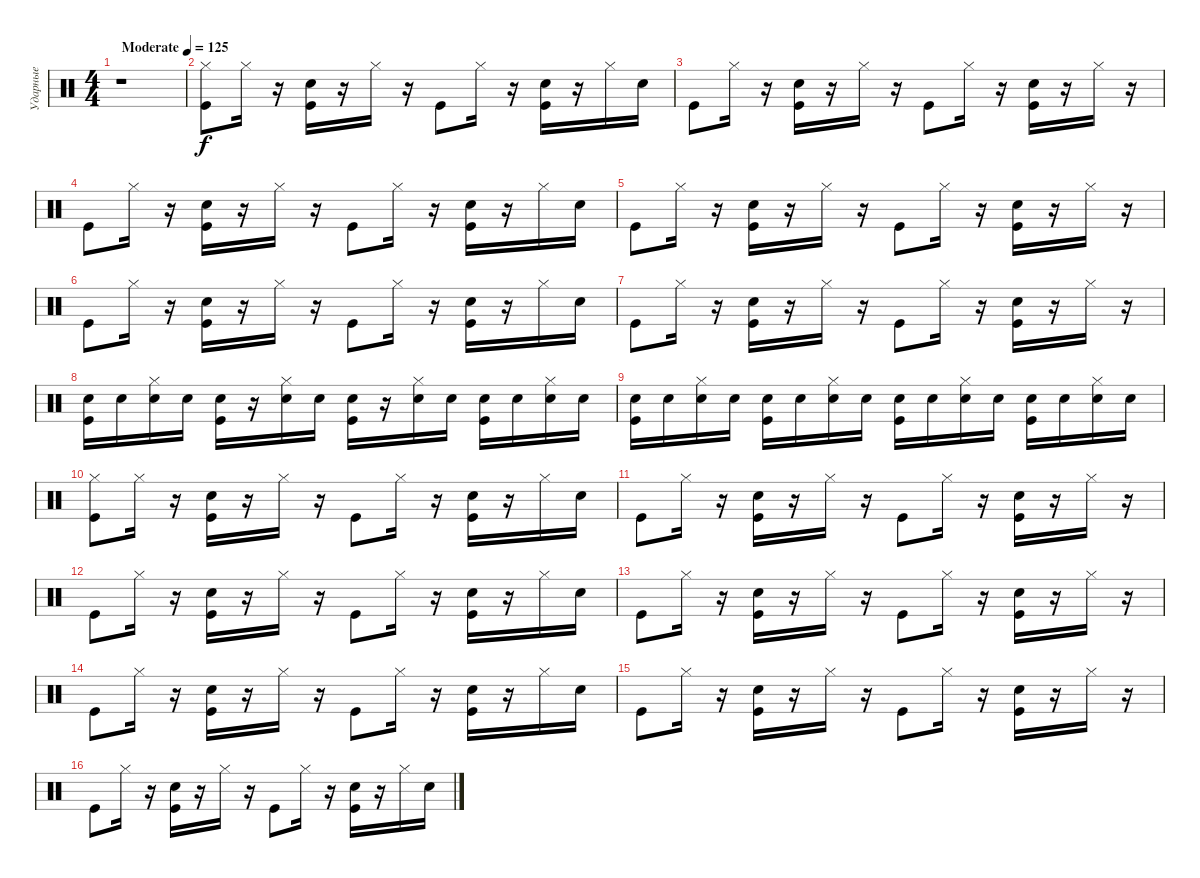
\track ("Ударные" "Ударные") {instrument percussion}
\staff {score}
\articulation defaults
\ts (4 4)
\tempo (125 "Moderate")
\clef neutral
\ks c
r.1{dy f} |
("Hi-Hat (closed)" "Kick (hit)").8 "Hi-Hat (closed)".16 r.16 ("Snare (hit) 2" "Kick (hit)").16 r.16 "Hi-Hat (closed)".16 r.16 "Kick (hit)".8 "Hi-Hat (closed)".16 r.16 ("Snare (hit) 2" "Kick (hit)").16 r.16 "Hi-Hat (closed)".16 "Snare (hit) 2".16 |
"Kick (hit)".8 "Hi-Hat (closed)".16 r.16 ("Snare (hit) 2" "Kick (hit)").16 r.16 "Hi-Hat (closed)".16 r.16 "Kick (hit)".8 "Hi-Hat (closed)".16 r.16 ("Snare (hit) 2" "Kick (hit)").16 r.16 "Hi-Hat (closed)".16 r.16 |
"Kick (hit)".8 "Hi-Hat (closed)".16 r.16 ("Snare (hit) 2" "Kick (hit)").16 r.16 "Hi-Hat (closed)".16 r.16 "Kick (hit)".8 "Hi-Hat (closed)".16 r.16 ("Snare (hit) 2" "Kick (hit)").16 r.16 "Hi-Hat (closed)".16 "Snare (hit) 2".16 |
"Kick (hit)".8 "Hi-Hat (closed)".16 r.16 ("Snare (hit) 2" "Kick (hit)").16 r.16 "Hi-Hat (closed)".16 r.16 "Kick (hit)".8 "Hi-Hat (closed)".16 r.16 ("Snare (hit) 2" "Kick (hit)").16 r.16 "Hi-Hat (closed)".16 r.16 |
"Kick (hit)".8 "Hi-Hat (closed)".16 r.16 ("Snare (hit) 2" "Kick (hit)").16 r.16 "Hi-Hat (closed)".16 r.16 "Kick (hit)".8 "Hi-Hat (closed)".16 r.16 ("Snare (hit) 2" "Kick (hit)").16 r.16 "Hi-Hat (closed)".16 "Snare (hit) 2".16 |
"Kick (hit)".8 "Hi-Hat (closed)".16 r.16 ("Snare (hit) 2" "Kick (hit)").16 r.16 "Hi-Hat (closed)".16 r.16 "Kick (hit)".8 "Hi-Hat (closed)".16 r.16 ("Snare (hit) 2" "Kick (hit)").16 r.16 "Hi-Hat (closed)".16 r.16 |
("Snare (hit) 2" "Kick (hit)").16 "Snare (hit) 2".16 ("Hi-Hat (closed)" "Snare (hit) 2").16 "Snare (hit) 2".16 ("Snare (hit) 2" "Kick (hit)").16 r.16 ("Hi-Hat (closed)" "Snare (hit) 2").16 "Snare (hit) 2".16 ("Snare (hit) 2" "Kick (hit)").16 r.16 ("Hi-Hat (closed)" "Snare (hit) 2").16 "Snare (hit) 2".16 ("Snare (hit) 2" "Kick (hit)").16 "Snare (hit) 2".16 ("Hi-Hat (closed)" "Snare (hit) 2").16 "Snare (hit) 2".16 |
("Snare (hit) 2" "Kick (hit)").16 "Snare (hit) 2".16 ("Hi-Hat (closed)" "Snare (hit) 2").16 "Snare (hit) 2".16 ("Snare (hit) 2" "Kick (hit)").16 "Snare (hit) 2".16 ("Hi-Hat (closed)" "Snare (hit) 2").16 "Snare (hit) 2".16 ("Snare (hit) 2" "Kick (hit)").16 "Snare (hit) 2".16 ("Hi-Hat (closed)" "Snare (hit) 2").16 "Snare (hit) 2".16 ("Snare (hit) 2" "Kick (hit)").16 "Snare (hit) 2".16 ("Hi-Hat (closed)" "Snare (hit) 2").16 "Snare (hit) 2".16 |
("Hi-Hat (closed)" "Kick (hit)").8 "Hi-Hat (closed)".16 r.16 ("Snare (hit) 2" "Kick (hit)").16 r.16 "Hi-Hat (closed)".16 r.16 "Kick (hit)".8 "Hi-Hat (closed)".16 r.16 ("Snare (hit) 2" "Kick (hit)").16 r.16 "Hi-Hat (closed)".16 "Snare (hit) 2".16 |
"Kick (hit)".8 "Hi-Hat (closed)".16 r.16 ("Snare (hit) 2" "Kick (hit)").16 r.16 "Hi-Hat (closed)".16 r.16 "Kick (hit)".8 "Hi-Hat (closed)".16 r.16 ("Snare (hit) 2" "Kick (hit)").16 r.16 "Hi-Hat (closed)".16 r.16 |
"Kick (hit)".8 "Hi-Hat (closed)".16 r.16 ("Snare (hit) 2" "Kick (hit)").16 r.16 "Hi-Hat (closed)".16 r.16 "Kick (hit)".8 "Hi-Hat (closed)".16 r.16 ("Snare (hit) 2" "Kick (hit)").16 r.16 "Hi-Hat (closed)".16 "Snare (hit) 2".16 |
"Kick (hit)".8 "Hi-Hat (closed)".16 r.16 ("Snare (hit) 2" "Kick (hit)").16 r.16 "Hi-Hat (closed)".16 r.16 "Kick (hit)".8 "Hi-Hat (closed)".16 r.16 ("Snare (hit) 2" "Kick (hit)").16 r.16 "Hi-Hat (closed)".16 r.16 |
"Kick (hit)".8 "Hi-Hat (closed)".16 r.16 ("Snare (hit) 2" "Kick (hit)").16 r.16 "Hi-Hat (closed)".16 r.16 "Kick (hit)".8 "Hi-Hat (closed)".16 r.16 ("Snare (hit) 2" "Kick (hit)").16 r.16 "Hi-Hat (closed)".16 "Snare (hit) 2".16 |
"Kick (hit)".8 "Hi-Hat (closed)".16 r.16 ("Snare (hit) 2" "Kick (hit)").16 r.16 "Hi-Hat (closed)".16 r.16 "Kick (hit)".8 "Hi-Hat (closed)".16 r.16 ("Snare (hit) 2" "Kick (hit)").16 r.16 "Hi-Hat (closed)".16 r.16 |
"Kick (hit)".8 "Hi-Hat (closed)".16 r.16 ("Snare (hit) 2" "Kick (hit)").16 r.16 "Hi-Hat (closed)".16 r.16 "Kick (hit)".8 "Hi-Hat (closed)".16 r.16 ("Snare (hit) 2" "Kick (hit)").16 r.16 "Hi-Hat (closed)".16 "Snare (hit) 2".16
